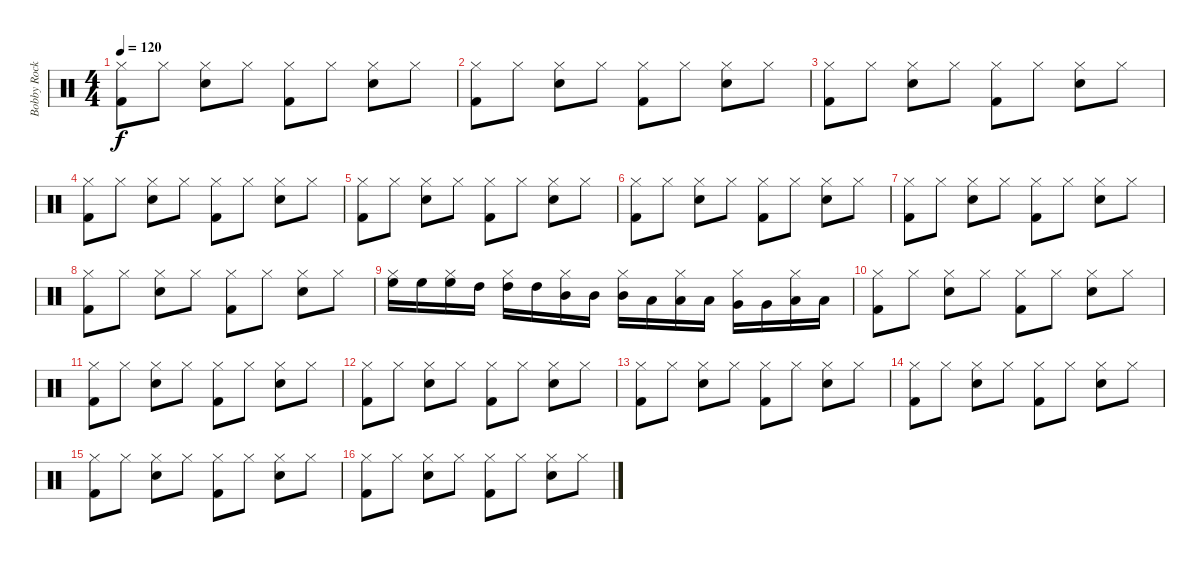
\track ("Bobby Rock" "Bobby Rock") {instrument percussion}
\staff {score}
\articulation defaults
\ts (4 4)
\tempo 120
\clef neutral
\ks c
("Kick (hit) 2" "Hi-Hat (closed)").8{dy f} "Hi-Hat (closed)".8 ("Snare (hit) 2" "Hi-Hat (closed)").8 "Hi-Hat (closed)".8 ("Kick (hit) 2" "Hi-Hat (closed)").8 "Hi-Hat (closed)".8 ("Snare (hit) 2" "Hi-Hat (closed)").8 "Hi-Hat (closed)".8 |
("Kick (hit) 2" "Hi-Hat (closed)").8 "Hi-Hat (closed)".8 ("Snare (hit) 2" "Hi-Hat (closed)").8 "Hi-Hat (closed)".8 ("Kick (hit) 2" "Hi-Hat (closed)").8 "Hi-Hat (closed)".8 ("Snare (hit) 2" "Hi-Hat (closed)").8 "Hi-Hat (closed)".8 |
("Kick (hit) 2" "Hi-Hat (closed)").8 "Hi-Hat (closed)".8 ("Snare (hit) 2" "Hi-Hat (closed)").8 "Hi-Hat (closed)".8 ("Kick (hit) 2" "Hi-Hat (closed)").8 "Hi-Hat (closed)".8 ("Snare (hit) 2" "Hi-Hat (closed)").8 "Hi-Hat (closed)".8 |
("Kick (hit) 2" "Hi-Hat (closed)").8 "Hi-Hat (closed)".8 ("Snare (hit) 2" "Hi-Hat (closed)").8 "Hi-Hat (closed)".8 ("Kick (hit) 2" "Hi-Hat (closed)").8 "Hi-Hat (closed)".8 ("Snare (hit) 2" "Hi-Hat (closed)").8 "Hi-Hat (closed)".8 |
("Kick (hit) 2" "Hi-Hat (closed)").8 "Hi-Hat (closed)".8 ("Snare (hit) 2" "Hi-Hat (closed)").8 "Hi-Hat (closed)".8 ("Kick (hit) 2" "Hi-Hat (closed)").8 "Hi-Hat (closed)".8 ("Snare (hit) 2" "Hi-Hat (closed)").8 "Hi-Hat (closed)".8 |
("Kick (hit) 2" "Hi-Hat (closed)").8 "Hi-Hat (closed)".8 ("Snare (hit) 2" "Hi-Hat (closed)").8 "Hi-Hat (closed)".8 ("Kick (hit) 2" "Hi-Hat (closed)").8 "Hi-Hat (closed)".8 ("Snare (hit) 2" "Hi-Hat (closed)").8 "Hi-Hat (closed)".8 |
("Kick (hit) 2" "Hi-Hat (closed)").8 "Hi-Hat (closed)".8 ("Snare (hit) 2" "Hi-Hat (closed)").8 "Hi-Hat (closed)".8 ("Kick (hit) 2" "Hi-Hat (closed)").8 "Hi-Hat (closed)".8 ("Snare (hit) 2" "Hi-Hat (closed)").8 "Hi-Hat (closed)".8 |
("Kick (hit) 2" "Hi-Hat (closed)").8 "Hi-Hat (closed)".8 ("Snare (hit) 2" "Hi-Hat (closed)").8 "Hi-Hat (closed)".8 ("Kick (hit) 2" "Hi-Hat (closed)").8 "Hi-Hat (closed)".8 ("Snare (hit) 2" "Hi-Hat (closed)").8 "Hi-Hat (closed)".8 |
("Hi-Hat (closed)" "High Floor Tom (hit)").16 "High Floor Tom (hit)".16 ("Hi-Hat (closed)" "High Floor Tom (hit)").16 "High Tom (hit)".16 ("Hi-Hat (closed)" "High Tom (hit)").16 "High Tom (hit)".16 ("Hi-Hat (closed)" "Mid Tom (hit)").16 "Mid Tom (hit)".16 ("Hi-Hat (closed)" "Mid Tom (hit)").16 "Low Tom (hit)".16 ("Hi-Hat (closed)" "Low Tom (hit)").16 "Low Tom (hit)".16 ("Hi-Hat (closed)" "Very Low Tom (hit)").16 "Very Low Tom (hit)".16 ("Hi-Hat (closed)" "Low Floor Tom (hit)").16 "Low Floor Tom (hit)".16 |
("Kick (hit) 2" "Hi-Hat (closed)").8 "Hi-Hat (closed)".8 ("Snare (hit) 2" "Hi-Hat (closed)").8 "Hi-Hat (closed)".8 ("Kick (hit) 2" "Hi-Hat (closed)").8 "Hi-Hat (closed)".8 ("Snare (hit) 2" "Hi-Hat (closed)").8 "Hi-Hat (closed)".8 |
("Kick (hit) 2" "Hi-Hat (closed)").8 "Hi-Hat (closed)".8 ("Snare (hit) 2" "Hi-Hat (closed)").8 "Hi-Hat (closed)".8 ("Kick (hit) 2" "Hi-Hat (closed)").8 "Hi-Hat (closed)".8 ("Snare (hit) 2" "Hi-Hat (closed)").8 "Hi-Hat (closed)".8 |
("Kick (hit) 2" "Hi-Hat (closed)").8 "Hi-Hat (closed)".8 ("Snare (hit) 2" "Hi-Hat (closed)").8 "Hi-Hat (closed)".8 ("Kick (hit) 2" "Hi-Hat (closed)").8 "Hi-Hat (closed)".8 ("Snare (hit) 2" "Hi-Hat (closed)").8 "Hi-Hat (closed)".8 |
("Kick (hit) 2" "Hi-Hat (closed)").8 "Hi-Hat (closed)".8 ("Snare (hit) 2" "Hi-Hat (closed)").8 "Hi-Hat (closed)".8 ("Kick (hit) 2" "Hi-Hat (closed)").8 "Hi-Hat (closed)".8 ("Snare (hit) 2" "Hi-Hat (closed)").8 "Hi-Hat (closed)".8 |
("Kick (hit) 2" "Hi-Hat (closed)").8 "Hi-Hat (closed)".8 ("Snare (hit) 2" "Hi-Hat (closed)").8 "Hi-Hat (closed)".8 ("Kick (hit) 2" "Hi-Hat (closed)").8 "Hi-Hat (closed)".8 ("Snare (hit) 2" "Hi-Hat (closed)").8 "Hi-Hat (closed)".8 |
("Kick (hit) 2" "Hi-Hat (closed)").8 "Hi-Hat (closed)".8 ("Snare (hit) 2" "Hi-Hat (closed)").8 "Hi-Hat (closed)".8 ("Kick (hit) 2" "Hi-Hat (closed)").8 "Hi-Hat (closed)".8 ("Snare (hit) 2" "Hi-Hat (closed)").8 "Hi-Hat (closed)".8 |
("Kick (hit) 2" "Hi-Hat (closed)").8 "Hi-Hat (closed)".8 ("Snare (hit) 2" "Hi-Hat (closed)").8 "Hi-Hat (closed)".8 ("Kick (hit) 2" "Hi-Hat (closed)").8 "Hi-Hat (closed)".8 ("Snare (hit) 2" "Hi-Hat (closed)").8 "Hi-Hat (closed)".8
